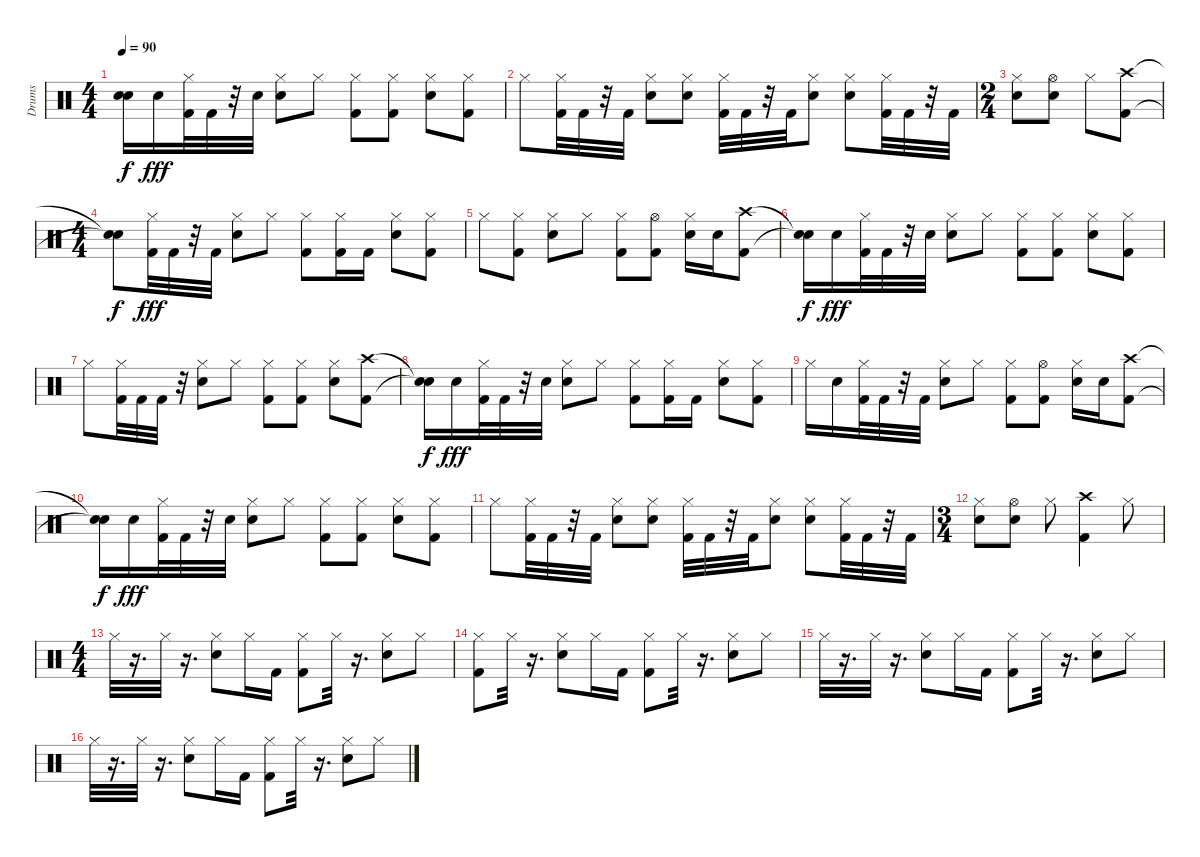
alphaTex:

\track ("Drums" "Drums") {instrument percussion}
\staff {score}
\articulation defaults
\ts (4 4)
\tempo 90
\clef neutral
\ks c
("Snare (hit)"{t} "Snare (hit)"{t}).16{dy f} "Snare (hit) 2".16{dy fff} ("Kick (hit) 2" "Hi-Hat (closed)").32 "Kick (hit) 2".32 r.32 "Snare (hit) 2".32 ("Hi-Hat (closed)" "Electric Snare (hit)").8 "Hi-Hat (closed)".8 ("Kick (hit) 2" "Hi-Hat (closed)").8 ("Hi-Hat (closed)" "Kick (hit) 2").8 ("Electric Snare (hit)" "Hi-Hat (closed)").8 ("Hi-Hat (closed)" "Kick (hit) 2").8 |
"Hi-Hat (closed)".8 ("Kick (hit) 2" "Hi-Hat (closed)").32 "Kick (hit) 2".32 r.32 "Kick (hit) 2".32 ("Snare (hit) 2" "Hi-Hat (closed)").8 ("Electric Snare (hit)" "Hi-Hat (closed)").8 ("Hi-Hat (closed)" "Kick (hit) 2").32 "Kick (hit) 2".32 r.32 "Kick (hit) 2".32 ("Electric Snare (hit)" "Hi-Hat (closed)").8 ("Electric Snare (hit)" "Hi-Hat (closed)").8 ("Hi-Hat (closed)" "Kick (hit) 2").32 "Kick (hit) 2".32 r.32 "Kick (hit) 2".32 |
\ts (2 4)
("Hi-Hat (closed)" "Electric Snare (hit)").8 ("Hi-Hat (open)" "Snare (hit) 2").8 "Hi-Hat (closed)".8 ("Crash high (hit)" "Kick (hit) 2").8 |
\ts (4 4)
("Snare (hit)"{t} "Snare (hit)"{t}).8{dy f} ("Kick (hit) 2" "Hi-Hat (closed)").32{dy fff} "Kick (hit) 2".32 r.32 "Kick (hit) 2".32 ("Hi-Hat (closed)" "Snare (hit) 2").8 "Hi-Hat (closed)".8 ("Kick (hit) 2" "Hi-Hat (closed)").8 ("Kick (hit) 2" "Hi-Hat (closed)").16 "Kick (hit) 2".16 ("Hi-Hat (closed)" "Electric Snare (hit)").8 ("Hi-Hat (closed)" "Kick (hit) 2").8 |
"Hi-Hat (closed)".8 ("Hi-Hat (closed)" "Kick (hit) 2").8 ("Electric Snare (hit)" "Hi-Hat (closed)").8 "Hi-Hat (closed)".8 ("Kick (hit) 2" "Hi-Hat (closed)").8 ("Kick (hit) 2" "Hi-Hat (open)").8 ("Hi-Hat (closed)" "Electric Snare (hit)").16 "Snare (hit) 2".16 ("Kick (hit) 2" "Crash high (hit)").8 |
("Snare (hit)"{t} "Snare (hit)"{t}).16{dy f} "Snare (hit) 2".16{dy fff} ("Hi-Hat (closed)" "Kick (hit) 2").32 "Kick (hit) 2".32 r.32 "Electric Snare (hit)".32 ("Electric Snare (hit)" "Hi-Hat (closed)").8 "Hi-Hat (closed)".8 ("Kick (hit) 2" "Hi-Hat (closed)").8 ("Kick (hit) 2" "Hi-Hat (closed)").8 ("Hi-Hat (closed)" "Electric Snare (hit)").8 ("Hi-Hat (closed)" "Kick (hit) 2").8 |
"Hi-Hat (closed)".8 ("Kick (hit) 2" "Hi-Hat (closed)").32 "Kick (hit) 2".32 "Kick (hit) 2".32 r.32 ("Electric Snare (hit)" "Hi-Hat (closed)").8 "Hi-Hat (closed)".8 ("Kick (hit) 2" "Hi-Hat (closed)").8 ("Kick (hit) 2" "Hi-Hat (closed)").8 ("Hi-Hat (closed)" "Electric Snare (hit)").8 ("Kick (hit) 2" "Crash high (hit)").8 |
("Snare (hit)"{t} "Snare (hit)"{t}).16{dy f} "Snare (hit) 2".16{dy fff} ("Kick (hit) 2" "Hi-Hat (closed)").32 "Kick (hit) 2".32 r.32 "Electric Snare (hit)".32 ("Electric Snare (hit)" "Hi-Hat (closed)").8 "Hi-Hat (closed)".8 ("Kick (hit) 2" "Hi-Hat (closed)").8 ("Hi-Hat (closed)" "Kick (hit) 2").16 "Kick (hit) 2".16 ("Hi-Hat (closed)" "Electric Snare (hit)").8 ("Kick (hit) 2" "Hi-Hat (closed)").8 |
"Hi-Hat (closed)".16 "Snare (hit) 2".16 ("Hi-Hat (closed)" "Kick (hit) 2").32 "Kick (hit) 2".32 r.32 "Kick (hit) 2".32 ("Snare (hit) 2" "Hi-Hat (closed)").8 "Hi-Hat (closed)".8 ("Kick (hit) 2" "Hi-Hat (closed)").8 ("Kick (hit) 2" "Hi-Hat (open)").8 ("Hi-Hat (closed)" "Snare (hit) 2").16 "Snare (hit) 2".16 ("Crash high (hit)" "Kick (hit) 2").8 |
("Snare (hit)"{t} "Snare (hit)"{t}).16{dy f} "Snare (hit) 2".16{dy fff} ("Kick (hit) 2" "Hi-Hat (closed)").32 "Kick (hit) 2".32 r.32 "Snare (hit) 2".32 ("Hi-Hat (closed)" "Electric Snare (hit)").8 "Hi-Hat (closed)".8 ("Kick (hit) 2" "Hi-Hat (closed)").8 ("Hi-Hat (closed)" "Kick (hit) 2").8 ("Electric Snare (hit)" "Hi-Hat (closed)").8 ("Hi-Hat (closed)" "Kick (hit) 2").8 |
"Hi-Hat (closed)".8 ("Kick (hit) 2" "Hi-Hat (closed)").32 "Kick (hit) 2".32 r.32 "Kick (hit) 2".32 ("Snare (hit) 2" "Hi-Hat (closed)").8 ("Electric Snare (hit)" "Hi-Hat (closed)").8 ("Hi-Hat (closed)" "Kick (hit) 2").32 "Kick (hit) 2".32 r.32 "Kick (hit) 2".32 ("Electric Snare (hit)" "Hi-Hat (closed)").8 ("Electric Snare (hit)" "Hi-Hat (closed)").8 ("Hi-Hat (closed)" "Kick (hit) 2").32 "Kick (hit) 2".32 r.32 "Kick (hit) 2".32 |
\ts (3 4)
("Electric Snare (hit)" "Hi-Hat (closed)").8 ("Hi-Hat (open)" "Snare (hit) 2").8 "Hi-Hat (closed)".8 ("Crash high (hit)" "Kick (hit) 2").4 "Hi-Hat (closed)".8 |
\ts (4 4)
"Hi-Hat (closed)".32 r.16{d} "Hi-Hat (closed)".32 r.16{d} ("Hi-Hat (closed)" "Electric Snare (hit)").8 "Hi-Hat (closed)".16 "Kick (hit) 2".16 ("Kick (hit) 2" "Hi-Hat (closed)").8 "Hi-Hat (closed)".32 r.16{d} ("Hi-Hat (closed)" "Snare (hit) 2").8 "Hi-Hat (closed)".8 |
("Kick (hit) 2" "Hi-Hat (closed)").8 "Hi-Hat (closed)".32 r.16{d} ("Hi-Hat (closed)" "Electric Snare (hit)").8 "Hi-Hat (closed)".16 "Kick (hit) 2".16 ("Kick (hit) 2" "Hi-Hat (closed)").8 "Hi-Hat (closed)".32 r.16{d} ("Hi-Hat (closed)" "Snare (hit) 2").8 "Hi-Hat (closed)".8 |
"Hi-Hat (closed)".32 r.16{d} "Hi-Hat (closed)".32 r.16{d} ("Hi-Hat (closed)" "Electric Snare (hit)").8 "Hi-Hat (closed)".16 "Kick (hit) 2".16 ("Kick (hit) 2" "Hi-Hat (closed)").8 "Hi-Hat (closed)".32 r.16{d} ("Hi-Hat (closed)" "Snare (hit) 2").8 "Hi-Hat (closed)".8 |
"Hi-Hat (closed)".32 r.16{d} "Hi-Hat (closed)".32 r.16{d} ("Hi-Hat (closed)" "Electric Snare (hit)").8 "Hi-Hat (closed)".16 "Kick (hit) 2".16 ("Kick (hit) 2" "Hi-Hat (closed)").8 "Hi-Hat (closed)".32 r.16{d} ("Hi-Hat (closed)" "Snare (hit) 2").8 "Hi-Hat (closed)".8
